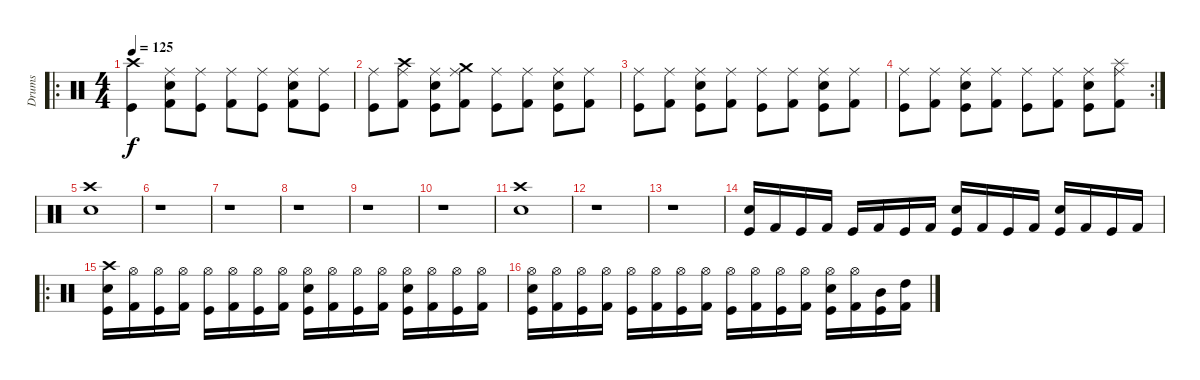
\track ("Drums" "Drums") {instrument percussion}
\staff {score}
\articulation defaults
\ro
\ts (4 4)
\tempo 125
\clef neutral
\ks c
("Kick (hit)" "Crash high (hit)").4{dy f} ("Kick (hit) 2" "Ride (middle)" "Electric Snare (hit)").8 ("Kick (hit)" "Ride (middle)").8 ("Kick (hit) 2" "Ride (middle)").8 ("Kick (hit)" "Ride (middle)").8 ("Kick (hit) 2" "Ride (middle)" "Electric Snare (hit)").8 ("Kick (hit)" "Ride (middle)").8 |
("Kick (hit)" "Ride (middle)").8 ("Kick (hit) 2" "Ride (middle)" "Crash high (hit)").8 ("Kick (hit)" "Ride (middle)" "Electric Snare (hit)").8 ("Kick (hit) 2" "Ride (middle)" "Crash medium (hit)").8 ("Kick (hit)" "Ride (middle)").8 ("Kick (hit) 2" "Ride (middle)").8 ("Kick (hit)" "Ride (middle)" "Electric Snare (hit)").8 ("Kick (hit) 2" "Ride (middle)").8 |
("Kick (hit)" "Ride (middle)").8 ("Kick (hit) 2" "Ride (middle)").8 ("Kick (hit)" "Ride (middle)" "Electric Snare (hit)").8 ("Kick (hit) 2" "Ride (middle)").8 ("Kick (hit)" "Ride (middle)").8 ("Kick (hit) 2" "Ride (middle)").8 ("Kick (hit)" "Ride (middle)" "Electric Snare (hit)").8 ("Kick (hit) 2" "Ride (middle)").8 |
\rc 2
("Kick (hit)" "Ride (middle)").8 ("Kick (hit) 2" "Ride (middle)").8 ("Kick (hit)" "Ride (middle)" "Electric Snare (hit)").8 ("Kick (hit) 2" "Ride (middle)").8 ("Kick (hit)" "Ride (middle)").8 ("Kick (hit) 2" "Ride (middle)").8 ("Kick (hit)" "Ride (middle)" "Electric Snare (hit)").8 ("Kick (hit) 2" "Ride (middle)" "Splash (hit)").8 |
("Crash high (hit)" "Electric Snare (hit)").1 |
r.1 |
r.1 |
r.1 |
r.1 |
r.1 |
("Crash high (hit)" "Electric Snare (hit)").1 |
r.1 |
r.1 |
("Kick (hit)" "Snare (hit) 2").16 "Kick (hit) 2".16 "Kick (hit)".16 "Kick (hit) 2".16 "Kick (hit)".16 "Kick (hit) 2".16 "Kick (hit)".16 "Kick (hit) 2".16 ("Kick (hit)" "Electric Snare (hit)").16 "Kick (hit) 2".16 "Kick (hit)".16 "Kick (hit) 2".16 ("Kick (hit)" "Electric Snare (hit)").16 "Kick (hit) 2".16 "Kick (hit)".16 "Kick (hit) 2".16 |
\ro
("Kick (hit)" "Crash high (hit)" "Electric Snare (hit)").16 ("Kick (hit) 2" "Hi-Hat (open)").16 ("Kick (hit)" "Hi-Hat (open)").16 ("Kick (hit) 2" "Hi-Hat (open)").16 ("Kick (hit)" "Hi-Hat (open)").16 ("Kick (hit) 2" "Hi-Hat (open)").16 ("Kick (hit)" "Hi-Hat (open)").16 ("Kick (hit) 2" "Hi-Hat (open)").16 ("Kick (hit)" "Hi-Hat (open)" "Electric Snare (hit)").16 ("Kick (hit) 2" "Hi-Hat (open)").16 ("Kick (hit)" "Hi-Hat (open)").16 ("Kick (hit) 2" "Hi-Hat (open)").16 ("Kick (hit)" "Hi-Hat (open)" "Electric Snare (hit)").16 ("Kick (hit) 2" "Hi-Hat (open)").16 ("Kick (hit)" "Hi-Hat (open)").16 ("Kick (hit) 2" "Hi-Hat (open)").16 |
("Kick (hit)" "Hi-Hat (open)" "Electric Snare (hit)").16 ("Kick (hit) 2" "Hi-Hat (open)").16 ("Kick (hit)" "Hi-Hat (open)").16 ("Kick (hit) 2" "Hi-Hat (open)").16 ("Kick (hit)" "Hi-Hat (open)").16 ("Kick (hit) 2" "Hi-Hat (open)").16 ("Kick (hit)" "Hi-Hat (open)").16 ("Kick (hit) 2" "Hi-Hat (open)").16 ("Kick (hit)" "Hi-Hat (open)").16 ("Kick (hit) 2" "Hi-Hat (open)").16 ("Kick (hit)" "Hi-Hat (open)").16 ("Kick (hit) 2" "Hi-Hat (open)").16 ("Kick (hit)" "Hi-Hat (open)" "Electric Snare (hit)").16 ("Kick (hit) 2" "Hi-Hat (open)").16 ("Kick (hit)" "Mid Tom (hit)").16 ("Kick (hit) 2" "High Tom (hit)").16
